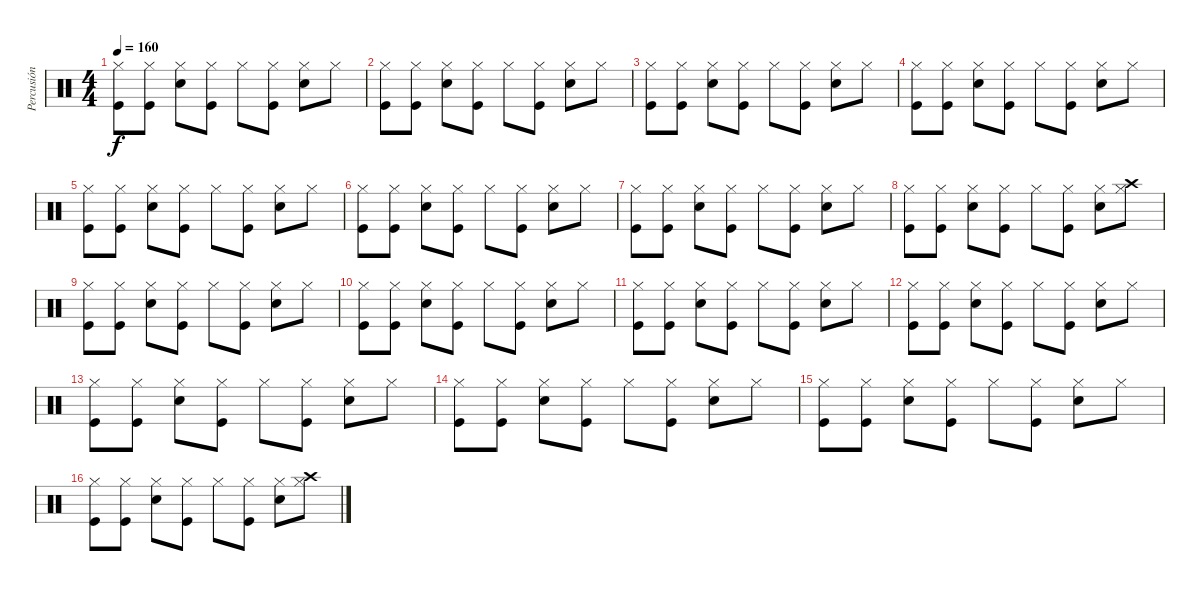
\track ("Percusión" "Percusión") {instrument percussion}
\staff {score}
\articulation defaults
\ts (4 4)
\tempo 160
\clef neutral
\ks c
("Hi-Hat (closed)" "Kick (hit)").8{dy f} ("Hi-Hat (closed)" "Kick (hit)").8 ("Hi-Hat (closed)" "Snare (hit) 2").8 ("Hi-Hat (closed)" "Kick (hit)").8 "Hi-Hat (closed)".8 ("Hi-Hat (closed)" "Kick (hit)").8 ("Hi-Hat (closed)" "Snare (hit) 2").8 "Hi-Hat (closed)".8 |
("Hi-Hat (closed)" "Kick (hit)").8 ("Hi-Hat (closed)" "Kick (hit)").8 ("Hi-Hat (closed)" "Snare (hit) 2").8 ("Hi-Hat (closed)" "Kick (hit)").8 "Hi-Hat (closed)".8 ("Hi-Hat (closed)" "Kick (hit)").8 ("Hi-Hat (closed)" "Snare (hit) 2").8 "Hi-Hat (closed)".8 |
("Hi-Hat (closed)" "Kick (hit)").8 ("Hi-Hat (closed)" "Kick (hit)").8 ("Hi-Hat (closed)" "Snare (hit) 2").8 ("Hi-Hat (closed)" "Kick (hit)").8 "Hi-Hat (closed)".8 ("Hi-Hat (closed)" "Kick (hit)").8 ("Hi-Hat (closed)" "Snare (hit) 2").8 "Hi-Hat (closed)".8 |
("Hi-Hat (closed)" "Kick (hit)").8 ("Hi-Hat (closed)" "Kick (hit)").8 ("Hi-Hat (closed)" "Snare (hit) 2").8 ("Hi-Hat (closed)" "Kick (hit)").8 "Hi-Hat (closed)".8 ("Hi-Hat (closed)" "Kick (hit)").8 ("Hi-Hat (closed)" "Snare (hit) 2").8 "Hi-Hat (closed)".8 |
("Hi-Hat (closed)" "Kick (hit)").8 ("Hi-Hat (closed)" "Kick (hit)").8 ("Hi-Hat (closed)" "Snare (hit) 2").8 ("Hi-Hat (closed)" "Kick (hit)").8 "Hi-Hat (closed)".8 ("Hi-Hat (closed)" "Kick (hit)").8 ("Hi-Hat (closed)" "Snare (hit) 2").8 "Hi-Hat (closed)".8 |
("Hi-Hat (closed)" "Kick (hit)").8 ("Hi-Hat (closed)" "Kick (hit)").8 ("Hi-Hat (closed)" "Snare (hit) 2").8 ("Hi-Hat (closed)" "Kick (hit)").8 "Hi-Hat (closed)".8 ("Hi-Hat (closed)" "Kick (hit)").8 ("Hi-Hat (closed)" "Snare (hit) 2").8 "Hi-Hat (closed)".8 |
("Hi-Hat (closed)" "Kick (hit)").8 ("Hi-Hat (closed)" "Kick (hit)").8 ("Hi-Hat (closed)" "Snare (hit) 2").8 ("Hi-Hat (closed)" "Kick (hit)").8 "Hi-Hat (closed)".8 ("Hi-Hat (closed)" "Kick (hit)").8 ("Hi-Hat (closed)" "Snare (hit) 2").8 "Hi-Hat (closed)".8 |
("Hi-Hat (closed)" "Kick (hit)").8 ("Hi-Hat (closed)" "Kick (hit)").8 ("Hi-Hat (closed)" "Snare (hit) 2").8 ("Hi-Hat (closed)" "Kick (hit)").8 "Hi-Hat (closed)".8 ("Hi-Hat (closed)" "Kick (hit)").8 ("Hi-Hat (closed)" "Snare (hit) 2").8 ("Hi-Hat (closed)" "Crash high (hit)").8 |
("Hi-Hat (closed)" "Kick (hit)").8 ("Hi-Hat (closed)" "Kick (hit)").8 ("Hi-Hat (closed)" "Snare (hit) 2").8 ("Hi-Hat (closed)" "Kick (hit)").8 "Hi-Hat (closed)".8 ("Hi-Hat (closed)" "Kick (hit)").8 ("Hi-Hat (closed)" "Snare (hit) 2").8 "Hi-Hat (closed)".8 |
("Hi-Hat (closed)" "Kick (hit)").8 ("Hi-Hat (closed)" "Kick (hit)").8 ("Hi-Hat (closed)" "Snare (hit) 2").8 ("Hi-Hat (closed)" "Kick (hit)").8 "Hi-Hat (closed)".8 ("Hi-Hat (closed)" "Kick (hit)").8 ("Hi-Hat (closed)" "Snare (hit) 2").8 "Hi-Hat (closed)".8 |
("Hi-Hat (closed)" "Kick (hit)").8 ("Hi-Hat (closed)" "Kick (hit)").8 ("Hi-Hat (closed)" "Snare (hit) 2").8 ("Hi-Hat (closed)" "Kick (hit)").8 "Hi-Hat (closed)".8 ("Hi-Hat (closed)" "Kick (hit)").8 ("Hi-Hat (closed)" "Snare (hit) 2").8 "Hi-Hat (closed)".8 |
("Hi-Hat (closed)" "Kick (hit)").8 ("Hi-Hat (closed)" "Kick (hit)").8 ("Hi-Hat (closed)" "Snare (hit) 2").8 ("Hi-Hat (closed)" "Kick (hit)").8 "Hi-Hat (closed)".8 ("Hi-Hat (closed)" "Kick (hit)").8 ("Hi-Hat (closed)" "Snare (hit) 2").8 "Hi-Hat (closed)".8 |
("Hi-Hat (closed)" "Kick (hit)").8 ("Hi-Hat (closed)" "Kick (hit)").8 ("Hi-Hat (closed)" "Snare (hit) 2").8 ("Hi-Hat (closed)" "Kick (hit)").8 "Hi-Hat (closed)".8 ("Hi-Hat (closed)" "Kick (hit)").8 ("Hi-Hat (closed)" "Snare (hit) 2").8 "Hi-Hat (closed)".8 |
("Hi-Hat (closed)" "Kick (hit)").8 ("Hi-Hat (closed)" "Kick (hit)").8 ("Hi-Hat (closed)" "Snare (hit) 2").8 ("Hi-Hat (closed)" "Kick (hit)").8 "Hi-Hat (closed)".8 ("Hi-Hat (closed)" "Kick (hit)").8 ("Hi-Hat (closed)" "Snare (hit) 2").8 "Hi-Hat (closed)".8 |
("Hi-Hat (closed)" "Kick (hit)").8 ("Hi-Hat (closed)" "Kick (hit)").8 ("Hi-Hat (closed)" "Snare (hit) 2").8 ("Hi-Hat (closed)" "Kick (hit)").8 "Hi-Hat (closed)".8 ("Hi-Hat (closed)" "Kick (hit)").8 ("Hi-Hat (closed)" "Snare (hit) 2").8 "Hi-Hat (closed)".8 |
("Hi-Hat (closed)" "Kick (hit)").8 ("Hi-Hat (closed)" "Kick (hit)").8 ("Hi-Hat (closed)" "Snare (hit) 2").8 ("Hi-Hat (closed)" "Kick (hit)").8 "Hi-Hat (closed)".8 ("Hi-Hat (closed)" "Kick (hit)").8 ("Hi-Hat (closed)" "Snare (hit) 2").8 ("Hi-Hat (closed)" "Crash high (hit)").8
